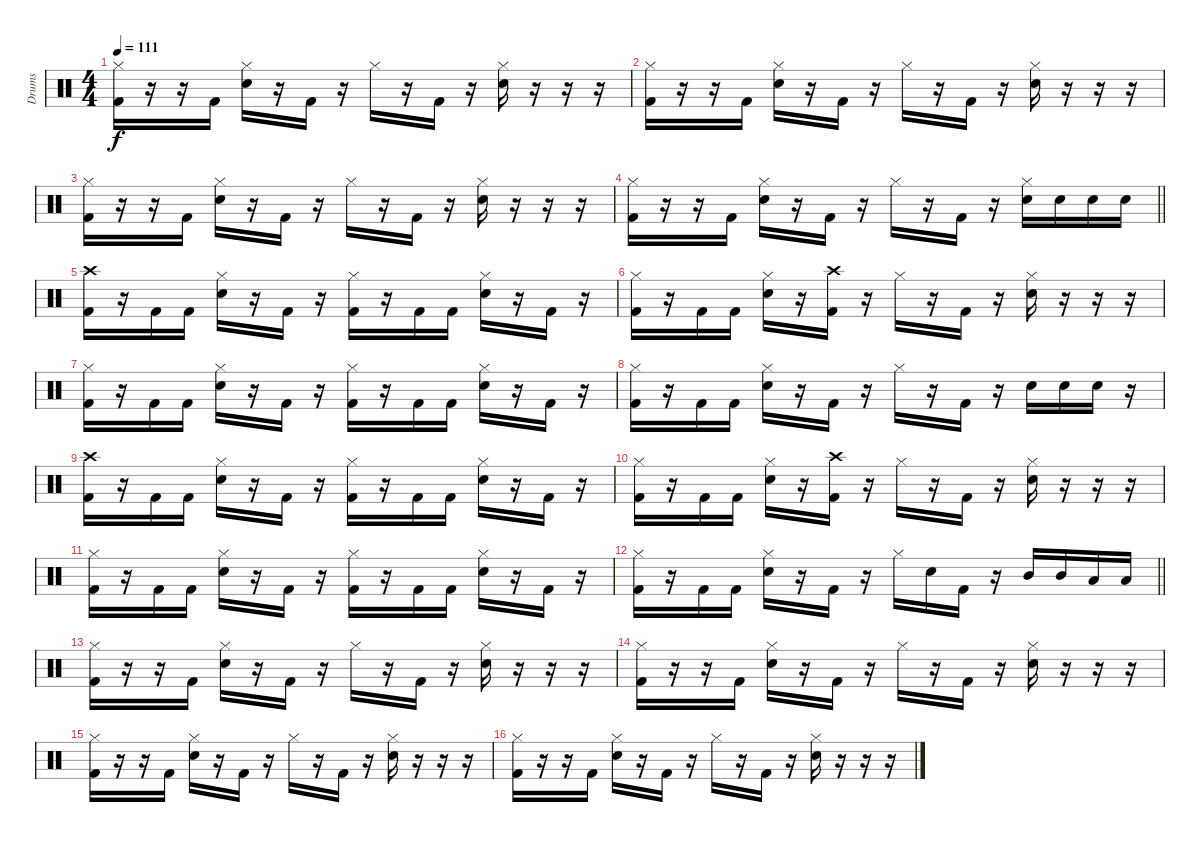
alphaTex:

\track ("Drums" "Drums") {instrument percussion}
\staff {score}
\articulation defaults
\ts (4 4)
\tempo 111
\clef neutral
\ks c
("Hi-Hat (closed)" "Kick (hit) 2").16{dy f} r.16 r.16 "Kick (hit) 2".16 ("Hi-Hat (closed)" "Snare (hit) 2").16 r.16 "Kick (hit) 2".16 r.16 "Hi-Hat (closed)".16 r.16 "Kick (hit) 2".16 r.16 ("Hi-Hat (closed)" "Snare (hit) 2").16 r.16 r.16 r.16 |
("Hi-Hat (closed)" "Kick (hit) 2").16 r.16 r.16 "Kick (hit) 2".16 ("Hi-Hat (closed)" "Snare (hit) 2").16 r.16 "Kick (hit) 2".16 r.16 "Hi-Hat (closed)".16 r.16 "Kick (hit) 2".16 r.16 ("Hi-Hat (closed)" "Snare (hit) 2").16 r.16 r.16 r.16 |
("Hi-Hat (closed)" "Kick (hit) 2").16 r.16 r.16 "Kick (hit) 2".16 ("Hi-Hat (closed)" "Snare (hit) 2").16 r.16 "Kick (hit) 2".16 r.16 "Hi-Hat (closed)".16 r.16 "Kick (hit) 2".16 r.16 ("Hi-Hat (closed)" "Snare (hit) 2").16 r.16 r.16 r.16 |
\barLineRight lightlight
("Hi-Hat (closed)" "Kick (hit) 2").16 r.16 r.16 "Kick (hit) 2".16 ("Hi-Hat (closed)" "Snare (hit) 2").16 r.16 "Kick (hit) 2".16 r.16 "Hi-Hat (closed)".16 r.16 "Kick (hit) 2".16 r.16 ("Hi-Hat (closed)" "Snare (hit) 2").16 "Snare (hit) 2".16 "Snare (hit) 2".16 "Snare (hit) 2".16 |
("Crash high (hit)" "Kick (hit) 2").16 r.16 "Kick (hit) 2".16 "Kick (hit) 2".16 ("Hi-Hat (closed)" "Snare (hit) 2").16 r.16 "Kick (hit) 2".16 r.16 ("Hi-Hat (closed)" "Kick (hit) 2").16 r.16 "Kick (hit) 2".16 "Kick (hit) 2".16 ("Hi-Hat (closed)" "Snare (hit) 2").16 r.16 "Kick (hit) 2".16 r.16 |
("Hi-Hat (closed)" "Kick (hit) 2").16 r.16 "Kick (hit) 2".16 "Kick (hit) 2".16 ("Hi-Hat (closed)" "Snare (hit) 2").16 r.16 ("Crash high (hit)" "Kick (hit) 2").16 r.16 "Hi-Hat (closed)".16 r.16 "Kick (hit) 2".16 r.16 ("Hi-Hat (closed)" "Snare (hit) 2").16 r.16 r.16 r.16 |
("Hi-Hat (closed)" "Kick (hit) 2").16 r.16 "Kick (hit) 2".16 "Kick (hit) 2".16 ("Hi-Hat (closed)" "Snare (hit) 2").16 r.16 "Kick (hit) 2".16 r.16 ("Hi-Hat (closed)" "Kick (hit) 2").16 r.16 "Kick (hit) 2".16 "Kick (hit) 2".16 ("Hi-Hat (closed)" "Snare (hit) 2").16 r.16 "Kick (hit) 2".16 r.16 |
("Hi-Hat (closed)" "Kick (hit) 2").16 r.16 "Kick (hit) 2".16 "Kick (hit) 2".16 ("Hi-Hat (closed)" "Snare (hit) 2").16 r.16 "Kick (hit) 2".16 r.16 "Hi-Hat (closed)".16 r.16 "Kick (hit) 2".16 r.16 "Snare (hit) 2".16 "Snare (hit) 2".16 "Snare (hit) 2".16 r.16 |
("Crash high (hit)" "Kick (hit) 2").16 r.16 "Kick (hit) 2".16 "Kick (hit) 2".16 ("Hi-Hat (closed)" "Snare (hit) 2").16 r.16 "Kick (hit) 2".16 r.16 ("Hi-Hat (closed)" "Kick (hit) 2").16 r.16 "Kick (hit) 2".16 "Kick (hit) 2".16 ("Hi-Hat (closed)" "Snare (hit) 2").16 r.16 "Kick (hit) 2".16 r.16 |
("Hi-Hat (closed)" "Kick (hit) 2").16 r.16 "Kick (hit) 2".16 "Kick (hit) 2".16 ("Hi-Hat (closed)" "Snare (hit) 2").16 r.16 ("Crash high (hit)" "Kick (hit) 2").16 r.16 "Hi-Hat (closed)".16 r.16 "Kick (hit) 2".16 r.16 ("Hi-Hat (closed)" "Snare (hit) 2").16 r.16 r.16 r.16 |
("Hi-Hat (closed)" "Kick (hit) 2").16 r.16 "Kick (hit) 2".16 "Kick (hit) 2".16 ("Hi-Hat (closed)" "Snare (hit) 2").16 r.16 "Kick (hit) 2".16 r.16 ("Hi-Hat (closed)" "Kick (hit) 2").16 r.16 "Kick (hit) 2".16 "Kick (hit) 2".16 ("Hi-Hat (closed)" "Snare (hit) 2").16 r.16 "Kick (hit) 2".16 r.16 |
\barLineRight lightlight
("Hi-Hat (closed)" "Kick (hit) 2").16 r.16 "Kick (hit) 2".16 "Kick (hit) 2".16 ("Hi-Hat (closed)" "Snare (hit) 2").16 r.16 "Kick (hit) 2".16 r.16 "Hi-Hat (closed)".16 "Snare (hit) 2".16 "Kick (hit) 2".16 r.16 "Mid Tom (hit)".16 "Mid Tom (hit)".16 "Low Tom (hit)".16 "Low Tom (hit)".16 |
("Hi-Hat (closed)" "Kick (hit) 2").16 r.16 r.16 "Kick (hit) 2".16 ("Hi-Hat (closed)" "Snare (hit) 2").16 r.16 "Kick (hit) 2".16 r.16 "Hi-Hat (closed)".16 r.16 "Kick (hit) 2".16 r.16 ("Hi-Hat (closed)" "Snare (hit) 2").16 r.16 r.16 r.16 |
("Hi-Hat (closed)" "Kick (hit) 2").16 r.16 r.16 "Kick (hit) 2".16 ("Hi-Hat (closed)" "Snare (hit) 2").16 r.16 "Kick (hit) 2".16 r.16 "Hi-Hat (closed)".16 r.16 "Kick (hit) 2".16 r.16 ("Hi-Hat (closed)" "Snare (hit) 2").16 r.16 r.16 r.16 |
("Hi-Hat (closed)" "Kick (hit) 2").16 r.16 r.16 "Kick (hit) 2".16 ("Hi-Hat (closed)" "Snare (hit) 2").16 r.16 "Kick (hit) 2".16 r.16 "Hi-Hat (closed)".16 r.16 "Kick (hit) 2".16 r.16 ("Hi-Hat (closed)" "Snare (hit) 2").16 r.16 r.16 r.16 |
("Hi-Hat (closed)" "Kick (hit) 2").16 r.16 r.16 "Kick (hit) 2".16 ("Hi-Hat (closed)" "Snare (hit) 2").16 r.16 "Kick (hit) 2".16 r.16 "Hi-Hat (closed)".16 r.16 "Kick (hit) 2".16 r.16 ("Hi-Hat (closed)" "Snare (hit) 2").16 r.16 r.16 r.16
